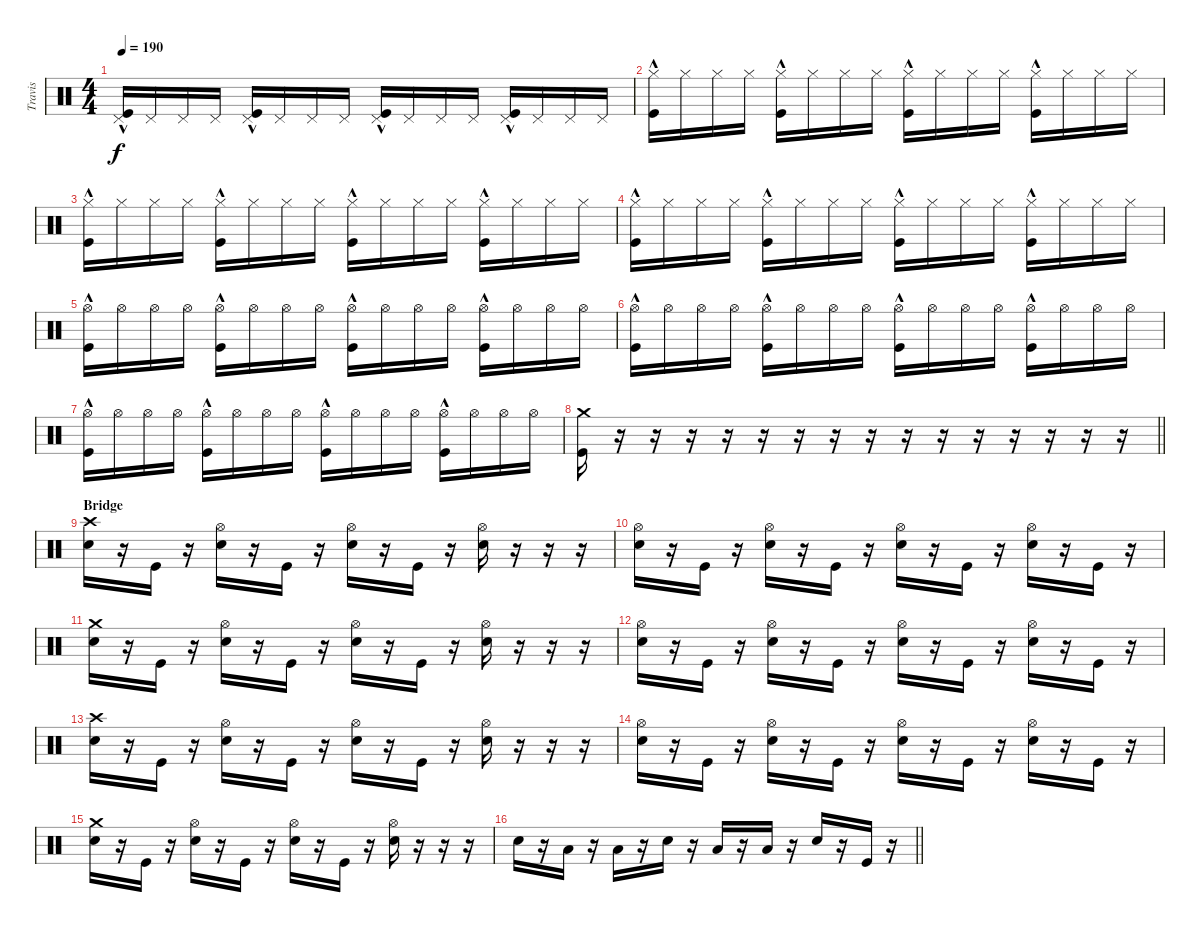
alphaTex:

\track ("Travis" "Travis") {instrument percussion}
\staff {score}
\articulation defaults
\ts (4 4)
\tempo 190
\clef neutral
\ks c
("Pedal Hi-Hat (hit)"{hac} "Kick (hit)").16{dy f} "Pedal Hi-Hat (hit)".16 "Pedal Hi-Hat (hit)".16 "Pedal Hi-Hat (hit)".16 ("Pedal Hi-Hat (hit)"{hac} "Kick (hit)").16 "Pedal Hi-Hat (hit)".16 "Pedal Hi-Hat (hit)".16 "Pedal Hi-Hat (hit)".16 ("Pedal Hi-Hat (hit)"{hac} "Kick (hit)").16 "Pedal Hi-Hat (hit)".16 "Pedal Hi-Hat (hit)".16 "Pedal Hi-Hat (hit)".16 ("Pedal Hi-Hat (hit)"{hac} "Kick (hit)").16 "Pedal Hi-Hat (hit)".16 "Pedal Hi-Hat (hit)".16 "Pedal Hi-Hat (hit)".16 |
("Hi-Hat (closed)"{hac} "Kick (hit)").16 "Hi-Hat (closed)".16 "Hi-Hat (closed)".16 "Hi-Hat (closed)".16 ("Hi-Hat (closed)"{hac} "Kick (hit)").16 "Hi-Hat (closed)".16 "Hi-Hat (closed)".16 "Hi-Hat (closed)".16 ("Hi-Hat (closed)"{hac} "Kick (hit)").16 "Hi-Hat (closed)".16 "Hi-Hat (closed)".16 "Hi-Hat (closed)".16 ("Hi-Hat (closed)"{hac} "Kick (hit)").16 "Hi-Hat (closed)".16 "Hi-Hat (closed)".16 "Hi-Hat (closed)".16 |
("Hi-Hat (closed)"{hac} "Kick (hit)").16 "Hi-Hat (closed)".16 "Hi-Hat (closed)".16 "Hi-Hat (closed)".16 ("Hi-Hat (closed)"{hac} "Kick (hit)").16 "Hi-Hat (closed)".16 "Hi-Hat (closed)".16 "Hi-Hat (closed)".16 ("Hi-Hat (closed)"{hac} "Kick (hit)").16 "Hi-Hat (closed)".16 "Hi-Hat (closed)".16 "Hi-Hat (closed)".16 ("Hi-Hat (closed)"{hac} "Kick (hit)").16 "Hi-Hat (closed)".16 "Hi-Hat (closed)".16 "Hi-Hat (closed)".16 |
("Hi-Hat (closed)"{hac} "Kick (hit)").16 "Hi-Hat (closed)".16 "Hi-Hat (closed)".16 "Hi-Hat (closed)".16 ("Hi-Hat (closed)"{hac} "Kick (hit)").16 "Hi-Hat (closed)".16 "Hi-Hat (closed)".16 "Hi-Hat (closed)".16 ("Hi-Hat (closed)"{hac} "Kick (hit)").16 "Hi-Hat (closed)".16 "Hi-Hat (closed)".16 "Hi-Hat (closed)".16 ("Hi-Hat (closed)"{hac} "Kick (hit)").16 "Hi-Hat (closed)".16 "Hi-Hat (closed)".16 "Hi-Hat (closed)".16 |
("Hi-Hat (open)"{hac} "Kick (hit)").16 "Hi-Hat (open)".16 "Hi-Hat (open)".16 "Hi-Hat (open)".16 ("Hi-Hat (open)"{hac} "Kick (hit)").16 "Hi-Hat (open)".16 "Hi-Hat (open)".16 "Hi-Hat (open)".16 ("Hi-Hat (open)"{hac} "Kick (hit)").16 "Hi-Hat (open)".16 "Hi-Hat (open)".16 "Hi-Hat (open)".16 ("Hi-Hat (open)"{hac} "Kick (hit)").16 "Hi-Hat (open)".16 "Hi-Hat (open)".16 "Hi-Hat (open)".16 |
("Hi-Hat (open)"{hac} "Kick (hit)").16 "Hi-Hat (open)".16 "Hi-Hat (open)".16 "Hi-Hat (open)".16 ("Hi-Hat (open)"{hac} "Kick (hit)").16 "Hi-Hat (open)".16 "Hi-Hat (open)".16 "Hi-Hat (open)".16 ("Hi-Hat (open)"{hac} "Kick (hit)").16 "Hi-Hat (open)".16 "Hi-Hat (open)".16 "Hi-Hat (open)".16 ("Hi-Hat (open)"{hac} "Kick (hit)").16 "Hi-Hat (open)".16 "Hi-Hat (open)".16 "Hi-Hat (open)".16 |
("Hi-Hat (open)"{hac} "Kick (hit)").16 "Hi-Hat (open)".16 "Hi-Hat (open)".16 "Hi-Hat (open)".16 ("Hi-Hat (open)"{hac} "Kick (hit)").16 "Hi-Hat (open)".16 "Hi-Hat (open)".16 "Hi-Hat (open)".16 ("Hi-Hat (open)"{hac} "Kick (hit)").16 "Hi-Hat (open)".16 "Hi-Hat (open)".16 "Hi-Hat (open)".16 ("Hi-Hat (open)"{hac} "Kick (hit)").16 "Hi-Hat (open)".16 "Hi-Hat (open)".16 "Hi-Hat (open)".16 |
\barLineRight lightlight
("Crash medium (hit)" "Kick (hit)").16 r.16 r.16 r.16 r.16 r.16 r.16 r.16 r.16 r.16 r.16 r.16 r.16 r.16 r.16 r.16 |
\section ("" "Bridge")
("Crash high (hit)" "Snare (hit) 2").16 r.16 "Kick (hit)".16 r.16 ("Hi-Hat (open)" "Snare (hit) 2").16 r.16 "Kick (hit)".16 r.16 ("Hi-Hat (open)" "Snare (hit) 2").16 r.16 "Kick (hit)".16 r.16 ("Hi-Hat (open)" "Snare (hit) 2").16 r.16 r.16 r.16 |
("Hi-Hat (open)" "Snare (hit) 2").16 r.16 "Kick (hit)".16 r.16 ("Hi-Hat (open)" "Snare (hit) 2").16 r.16 "Kick (hit)".16 r.16 ("Hi-Hat (open)" "Snare (hit) 2").16 r.16 "Kick (hit)".16 r.16 ("Hi-Hat (open)" "Snare (hit) 2").16 r.16 "Kick (hit)".16 r.16 |
("Crash medium (hit)" "Snare (hit) 2").16 r.16 "Kick (hit)".16 r.16 ("Hi-Hat (open)" "Snare (hit) 2").16 r.16 "Kick (hit)".16 r.16 ("Hi-Hat (open)" "Snare (hit) 2").16 r.16 "Kick (hit)".16 r.16 ("Hi-Hat (open)" "Snare (hit) 2").16 r.16 r.16 r.16 |
("Hi-Hat (open)" "Snare (hit) 2").16 r.16 "Kick (hit)".16 r.16 ("Hi-Hat (open)" "Snare (hit) 2").16 r.16 "Kick (hit)".16 r.16 ("Hi-Hat (open)" "Snare (hit) 2").16 r.16 "Kick (hit)".16 r.16 ("Hi-Hat (open)" "Snare (hit) 2").16 r.16 "Kick (hit)".16 r.16 |
("Crash high (hit)" "Snare (hit) 2").16 r.16 "Kick (hit)".16 r.16 ("Hi-Hat (open)" "Snare (hit) 2").16 r.16 "Kick (hit)".16 r.16 ("Hi-Hat (open)" "Snare (hit) 2").16 r.16 "Kick (hit)".16 r.16 ("Hi-Hat (open)" "Snare (hit) 2").16 r.16 r.16 r.16 |
("Hi-Hat (open)" "Snare (hit) 2").16 r.16 "Kick (hit)".16 r.16 ("Hi-Hat (open)" "Snare (hit) 2").16 r.16 "Kick (hit)".16 r.16 ("Hi-Hat (open)" "Snare (hit) 2").16 r.16 "Kick (hit)".16 r.16 ("Hi-Hat (open)" "Snare (hit) 2").16 r.16 "Kick (hit)".16 r.16 |
("Crash medium (hit)" "Snare (hit) 2").16 r.16 "Kick (hit)".16 r.16 ("Hi-Hat (open)" "Snare (hit) 2").16 r.16 "Kick (hit)".16 r.16 ("Hi-Hat (open)" "Snare (hit) 2").16 r.16 "Kick (hit)".16 r.16 ("Hi-Hat (open)" "Snare (hit) 2").16 r.16 r.16 r.16 |
\barLineRight lightlight "Snare (hit) 2".16
r.16 "Low Tom (hit)".16 r.16 "Low Floor Tom (hit)".16 r.16 "Snare (hit) 2".16 r.16 "Low Tom (hit)".16 r.16 "Low Floor Tom (hit)".16 r.16 "Snare (hit) 2".16 r.16 "Kick (hit)".16 r.16
